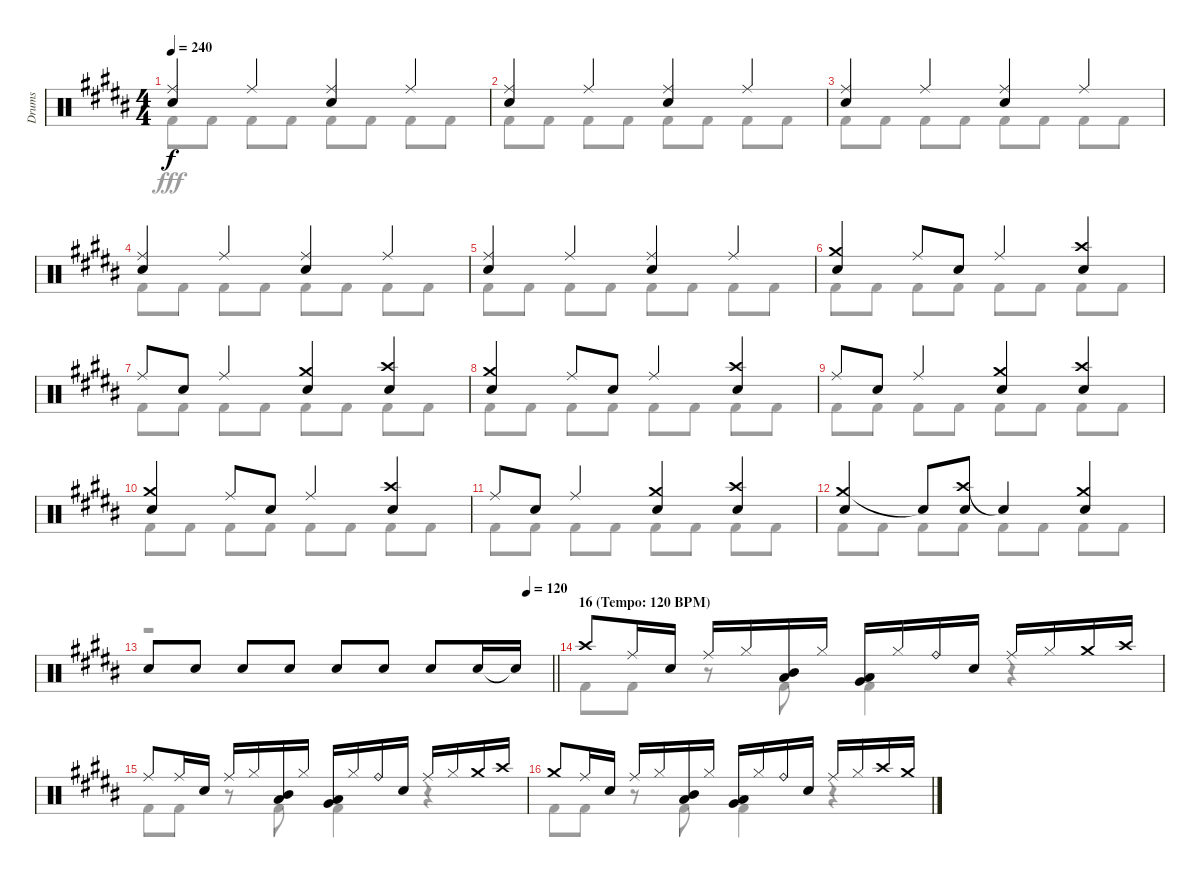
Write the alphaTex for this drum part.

\track ("Drums" "Drums") {instrument percussion}
\staff {score}
\articulation defaults
\voice
\ts (4 4)
\tempo 240
\clef neutral
\ks b
("Ride (middle)" "Snare (hit) 2").4{dy f} "Ride (middle)".4 ("Ride (middle)" "Snare (hit) 2").4 "Ride (middle)".4 |
("Ride (middle)" "Snare (hit) 2").4 "Ride (middle)".4 ("Ride (middle)" "Snare (hit) 2").4 "Ride (middle)".4 |
("Ride (middle)" "Snare (hit) 2").4 "Ride (middle)".4 ("Ride (middle)" "Snare (hit) 2").4 "Ride (middle)".4 |
("Ride (middle)" "Snare (hit) 2").4 "Ride (middle)".4 ("Ride (middle)" "Snare (hit) 2").4 "Ride (middle)".4 |
("Ride (middle)" "Snare (hit) 2").4 "Ride (middle)".4 ("Ride (middle)" "Snare (hit) 2").4 "Ride (middle)".4 |
("Crash medium (hit)" "Snare (hit) 2").4 "Ride (middle)".8 "Snare (hit) 2".8 "Ride (middle)".4 ("Crash high (hit)" "Snare (hit) 2").4 |
"Ride (middle)".8 "Snare (hit) 2".8 "Ride (middle)".4 ("Crash medium (hit)" "Snare (hit) 2").4 ("Crash high (hit)" "Snare (hit) 2").4 |
("Crash medium (hit)" "Snare (hit) 2").4 "Ride (middle)".8 "Snare (hit) 2".8 "Ride (middle)".4 ("Crash high (hit)" "Snare (hit) 2").4 |
"Ride (middle)".8 "Snare (hit) 2".8 "Ride (middle)".4 ("Crash medium (hit)" "Snare (hit) 2").4 ("Crash high (hit)" "Snare (hit) 2").4 |
("Crash medium (hit)" "Snare (hit) 2").4 "Ride (middle)".8 "Snare (hit) 2".8 "Ride (middle)".4 ("Crash high (hit)" "Snare (hit) 2").4 |
"Ride (middle)".8 "Snare (hit) 2".8 "Ride (middle)".4 ("Crash medium (hit)" "Snare (hit) 2").4 ("Crash high (hit)" "Snare (hit) 2").4 |
("Crash medium (hit)" "Snare (hit) 2").4 "Snare (hit)"{t}.8 ("Crash high (hit)" "Snare (hit) 2").8 "Snare (hit)"{t}.4 ("Crash medium (hit)" "Snare (hit) 2").4 |
\tempo (120 0.9375)
\barLineRight lightlight "Snare (hit) 2".8 "Snare (hit) 2".8 "Snare (hit) 2".8 "Snare (hit) 2".8 "Snare (hit) 2".8 "Snare (hit) 2".8 "Snare (hit) 2".8 "Snare (hit) 2".16 "Snare (hit)"{t}.16
|
\section ("" "16 (Tempo: 120 BPM)")
"Crash high (hit)".8 "Ride (middle)".16 "Snare (hit) 2".16 "Ride (middle)".16 "Hi-Hat (closed)".16 ("Mid Tom (hit)" "Low Tom (hit)").16 "Hi-Hat (closed)".16 ("Low Tom (hit)" "Very Low Tom (hit)").16 "Hi-Hat (closed)".16 "Ride (bell)".16 "Snare (hit) 2".16 "Ride (middle)".16 "Hi-Hat (closed)".16 "Crash medium (hit)".16 "Crash high (hit)".16 |
"Ride (middle)".8 "Ride (middle)".16 "Snare (hit) 2".16 "Ride (middle)".16 "Hi-Hat (closed)".16 ("Mid Tom (hit)" "Low Tom (hit)").16 "Hi-Hat (closed)".16 ("Low Tom (hit)" "Very Low Tom (hit)").16 "Hi-Hat (closed)".16 "Ride (bell)".16 "Snare (hit) 2".16 "Ride (middle)".16 "Hi-Hat (closed)".16 "Crash medium (hit)".16 "Crash high (hit)".16 |
"Crash medium (hit)".8 "Ride (middle)".16 "Snare (hit) 2".16 "Ride (middle)".16 "Hi-Hat (closed)".16 ("Mid Tom (hit)" "Low Tom (hit)").16 "Hi-Hat (closed)".16 ("Low Tom (hit)" "Very Low Tom (hit)").16 "Hi-Hat (closed)".16 "Ride (bell)".16 "Snare (hit) 2".16 "Ride (middle)".16 "Hi-Hat (closed)".16 "Crash high (hit)".16 "Crash medium (hit)".16
\voice
\clef neutral
\ottava regular
\simile none
\ks b "Kick (hit) 2".8{dy fff} "Kick (hit) 2".8 "Kick (hit) 2".8 "Kick (hit) 2".8 "Kick (hit) 2".8 "Kick (hit) 2".8 "Kick (hit) 2".8 "Kick (hit) 2".8
|
"Kick (hit) 2".8 "Kick (hit) 2".8 "Kick (hit) 2".8 "Kick (hit) 2".8 "Kick (hit) 2".8 "Kick (hit) 2".8 "Kick (hit) 2".8 "Kick (hit) 2".8 |
"Kick (hit) 2".8 "Kick (hit) 2".8 "Kick (hit) 2".8 "Kick (hit) 2".8 "Kick (hit) 2".8 "Kick (hit) 2".8 "Kick (hit) 2".8 "Kick (hit) 2".8 |
"Kick (hit) 2".8 "Kick (hit) 2".8 "Kick (hit) 2".8 "Kick (hit) 2".8 "Kick (hit) 2".8 "Kick (hit) 2".8 "Kick (hit) 2".8 "Kick (hit) 2".8 |
"Kick (hit) 2".8 "Kick (hit) 2".8 "Kick (hit) 2".8 "Kick (hit) 2".8 "Kick (hit) 2".8 "Kick (hit) 2".8 "Kick (hit) 2".8 "Kick (hit) 2".8 |
"Kick (hit) 2".8 "Kick (hit) 2".8 "Kick (hit) 2".8 "Kick (hit) 2".8 "Kick (hit) 2".8 "Kick (hit) 2".8 "Kick (hit) 2".8 "Kick (hit) 2".8 |
"Kick (hit) 2".8 "Kick (hit) 2".8 "Kick (hit) 2".8 "Kick (hit) 2".8 "Kick (hit) 2".8 "Kick (hit) 2".8 "Kick (hit) 2".8 "Kick (hit) 2".8 |
"Kick (hit) 2".8 "Kick (hit) 2".8 "Kick (hit) 2".8 "Kick (hit) 2".8 "Kick (hit) 2".8 "Kick (hit) 2".8 "Kick (hit) 2".8 "Kick (hit) 2".8 |
"Kick (hit) 2".8 "Kick (hit) 2".8 "Kick (hit) 2".8 "Kick (hit) 2".8 "Kick (hit) 2".8 "Kick (hit) 2".8 "Kick (hit) 2".8 "Kick (hit) 2".8 |
"Kick (hit) 2".8 "Kick (hit) 2".8 "Kick (hit) 2".8 "Kick (hit) 2".8 "Kick (hit) 2".8 "Kick (hit) 2".8 "Kick (hit) 2".8 "Kick (hit) 2".8 |
"Kick (hit) 2".8 "Kick (hit) 2".8 "Kick (hit) 2".8 "Kick (hit) 2".8 "Kick (hit) 2".8 "Kick (hit) 2".8 "Kick (hit) 2".8 "Kick (hit) 2".8 |
"Kick (hit) 2".8 "Kick (hit) 2".8 "Kick (hit) 2".8 "Kick (hit) 2".8 "Kick (hit) 2".8 "Kick (hit) 2".8 "Kick (hit) 2".8 "Kick (hit) 2".8 |
\barLineRight lightlight
r.1 |
"Kick (hit) 2".8 "Kick (hit) 2".8 r.8 "Kick (hit) 2".8 "Kick (hit) 2".4 r.4 |
"Kick (hit) 2".8 "Kick (hit) 2".8 r.8 "Kick (hit) 2".8 "Kick (hit) 2".4 r.4 |
"Kick (hit) 2".8 "Kick (hit) 2".8 r.8 "Kick (hit) 2".8 "Kick (hit) 2".4 r.4
